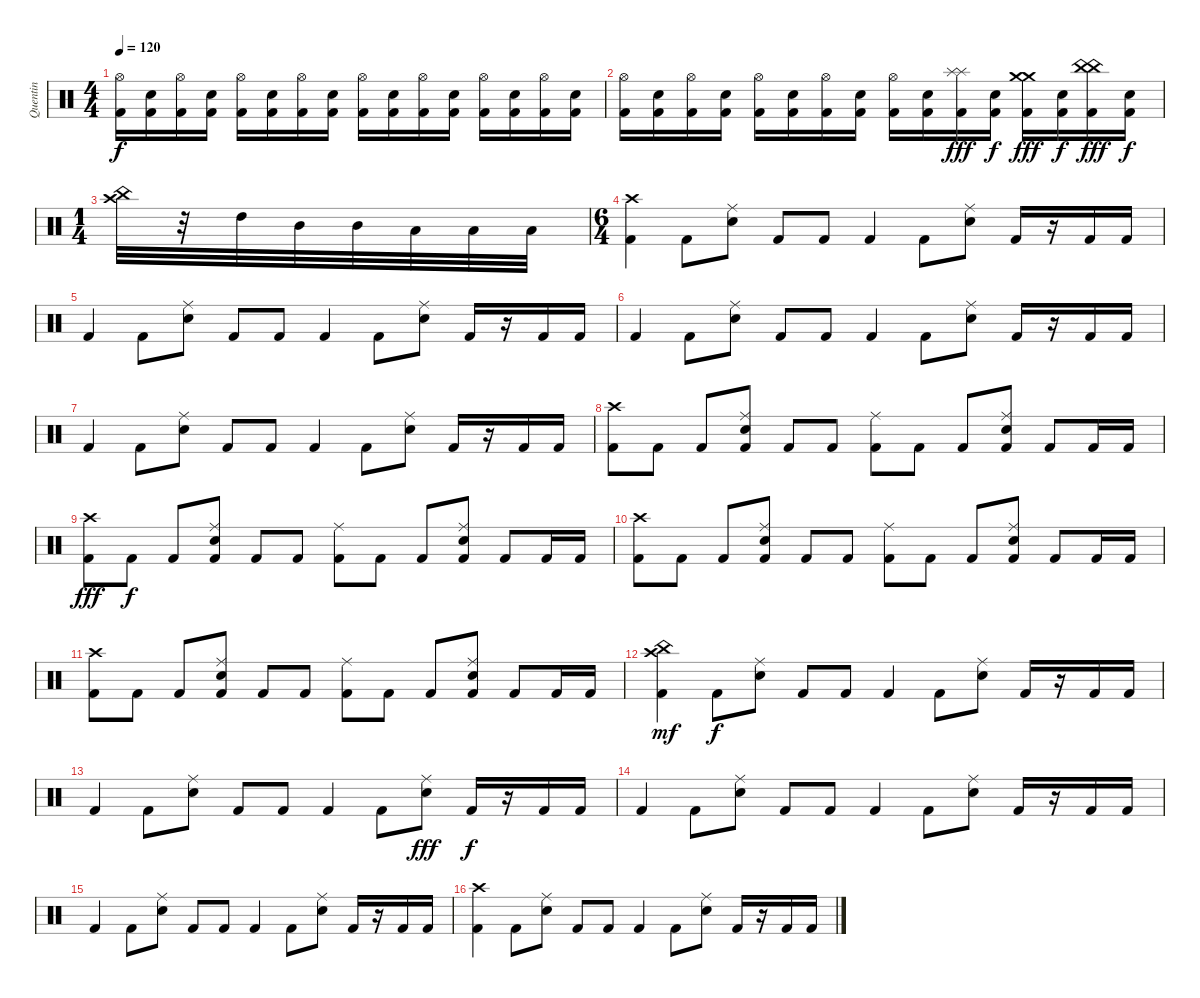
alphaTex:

\track ("Quentin" "Quentin") {instrument percussion}
\staff {score}
\articulation defaults
\ts (4 4)
\tempo 120
\clef neutral
\ks c
("Hi-Hat (open)" "Kick (hit) 2").16{dy f} ("Snare (hit) 2" "Kick (hit) 2").16 ("Hi-Hat (open)" "Kick (hit) 2").16 ("Snare (hit) 2" "Kick (hit) 2").16 ("Hi-Hat (open)" "Kick (hit) 2").16 ("Snare (hit) 2" "Kick (hit) 2").16 ("Hi-Hat (open)" "Kick (hit) 2").16 ("Snare (hit) 2" "Kick (hit) 2").16 ("Hi-Hat (open)" "Kick (hit) 2").16 ("Snare (hit) 2" "Kick (hit) 2").16 ("Hi-Hat (open)" "Kick (hit) 2").16 ("Snare (hit) 2" "Kick (hit) 2").16 ("Hi-Hat (open)" "Kick (hit) 2").16 ("Snare (hit) 2" "Kick (hit) 2").16 ("Hi-Hat (open)" "Kick (hit) 2").16 ("Snare (hit) 2" "Kick (hit) 2").16 |
("Hi-Hat (open)" "Kick (hit) 2").16 ("Snare (hit) 2" "Kick (hit) 2").16 ("Hi-Hat (open)" "Kick (hit) 2").16 ("Snare (hit) 2" "Kick (hit) 2").16 ("Hi-Hat (open)" "Kick (hit) 2").16 ("Snare (hit) 2" "Kick (hit) 2").16 ("Hi-Hat (open)" "Kick (hit) 2").16 ("Snare (hit) 2" "Kick (hit) 2").16 ("Hi-Hat (open)" "Kick (hit) 2").16 ("Snare (hit) 2" "Kick (hit) 2").16 ("Splash (hit)" "Splash (hit)" "Kick (hit) 2").16{dy fff} ("Snare (hit) 2" "Kick (hit) 2").16{dy f} ("Crash medium (hit)" "Crash medium (hit)" "Kick (hit) 2").16{dy fff} ("Snare (hit) 2" "Kick (hit) 2").16{dy f} ("China (hit)" "China (hit)" "Kick (hit) 2").16{dy fff} ("Snare (hit) 2" "Kick (hit) 2").16{dy f} |
\ts (1 4)
("China (hit)" "Crash high (hit)").32 r.32 "High Tom (hit)".32 "Mid Tom (hit)".32 "Mid Tom (hit)".32 "Low Tom (hit)".32 "Low Tom (hit)".32 "Low Tom (hit)".32 |
\ts (6 4)
("Crash high (hit)" "Kick (hit) 2").4 "Kick (hit) 2".8 ("Ride (middle)" "Electric Snare (hit)").8 "Kick (hit) 2".8 "Kick (hit) 2".8 "Kick (hit) 2".4 "Kick (hit) 2".8 ("Ride (middle)" "Electric Snare (hit)").8 "Kick (hit) 2".16 r.16 "Kick (hit) 2".16 "Kick (hit) 2".16 |
"Kick (hit) 2".4 "Kick (hit) 2".8 ("Ride (middle)" "Electric Snare (hit)").8 "Kick (hit) 2".8 "Kick (hit) 2".8 "Kick (hit) 2".4 "Kick (hit) 2".8 ("Ride (middle)" "Electric Snare (hit)").8 "Kick (hit) 2".16 r.16 "Kick (hit) 2".16 "Kick (hit) 2".16 |
"Kick (hit) 2".4 "Kick (hit) 2".8 ("Ride (middle)" "Electric Snare (hit)").8 "Kick (hit) 2".8 "Kick (hit) 2".8 "Kick (hit) 2".4 "Kick (hit) 2".8 ("Ride (middle)" "Electric Snare (hit)").8 "Kick (hit) 2".16 r.16 "Kick (hit) 2".16 "Kick (hit) 2".16 |
"Kick (hit) 2".4 "Kick (hit) 2".8 ("Ride (middle)" "Electric Snare (hit)").8 "Kick (hit) 2".8 "Kick (hit) 2".8 "Kick (hit) 2".4 "Kick (hit) 2".8 ("Ride (middle)" "Electric Snare (hit)").8 "Kick (hit) 2".16 r.16 "Kick (hit) 2".16 "Kick (hit) 2".16 |
("Crash high (hit)" "Kick (hit) 2").8 "Kick (hit) 2".8 "Kick (hit) 2".8 ("Ride (middle)" "Electric Snare (hit)" "Kick (hit) 2").8 "Kick (hit) 2".8 "Kick (hit) 2".8 ("Ride (middle)" "Kick (hit) 2").8 "Kick (hit) 2".8 "Kick (hit) 2".8 ("Ride (middle)" "Electric Snare (hit)" "Kick (hit) 2").8 "Kick (hit) 2".8 "Kick (hit) 2".16 "Kick (hit) 2".16 |
("Crash high (hit)" "Kick (hit) 2").8{dy fff} "Kick (hit) 2".8{dy f} "Kick (hit) 2".8 ("Ride (middle)" "Electric Snare (hit)" "Kick (hit) 2").8 "Kick (hit) 2".8 "Kick (hit) 2".8 ("Ride (middle)" "Kick (hit) 2").8 "Kick (hit) 2".8 "Kick (hit) 2".8 ("Ride (middle)" "Electric Snare (hit)" "Kick (hit) 2").8 "Kick (hit) 2".8 "Kick (hit) 2".16 "Kick (hit) 2".16 |
("Crash high (hit)" "Kick (hit) 2").8 "Kick (hit) 2".8 "Kick (hit) 2".8 ("Ride (middle)" "Electric Snare (hit)" "Kick (hit) 2").8 "Kick (hit) 2".8 "Kick (hit) 2".8 ("Ride (middle)" "Kick (hit) 2").8 "Kick (hit) 2".8 "Kick (hit) 2".8 ("Ride (middle)" "Electric Snare (hit)" "Kick (hit) 2").8 "Kick (hit) 2".8 "Kick (hit) 2".16 "Kick (hit) 2".16 |
("Crash high (hit)" "Kick (hit) 2").8 "Kick (hit) 2".8 "Kick (hit) 2".8 ("Ride (middle)" "Electric Snare (hit)" "Kick (hit) 2").8 "Kick (hit) 2".8 "Kick (hit) 2".8 ("Ride (middle)" "Kick (hit) 2").8 "Kick (hit) 2".8 "Kick (hit) 2".8 ("Ride (middle)" "Electric Snare (hit)" "Kick (hit) 2").8 "Kick (hit) 2".8 "Kick (hit) 2".16 "Kick (hit) 2".16 |
("Crash high (hit)" "China (hit)" "Kick (hit) 2").4{dy mf} "Kick (hit) 2".8{dy f} ("Ride (middle)" "Electric Snare (hit)").8 "Kick (hit) 2".8 "Kick (hit) 2".8 "Kick (hit) 2".4 "Kick (hit) 2".8 ("Ride (middle)" "Electric Snare (hit)").8 "Kick (hit) 2".16 r.16 "Kick (hit) 2".16 "Kick (hit) 2".16 |
"Kick (hit) 2".4 "Kick (hit) 2".8 ("Ride (middle)" "Electric Snare (hit)").8 "Kick (hit) 2".8 "Kick (hit) 2".8 "Kick (hit) 2".4 "Kick (hit) 2".8 ("Ride (middle)" "Electric Snare (hit)").8{dy fff} "Kick (hit) 2".16{dy f} r.16 "Kick (hit) 2".16 "Kick (hit) 2".16 |
"Kick (hit) 2".4 "Kick (hit) 2".8 ("Ride (middle)" "Electric Snare (hit)").8 "Kick (hit) 2".8 "Kick (hit) 2".8 "Kick (hit) 2".4 "Kick (hit) 2".8 ("Ride (middle)" "Electric Snare (hit)").8 "Kick (hit) 2".16 r.16 "Kick (hit) 2".16 "Kick (hit) 2".16 |
"Kick (hit) 2".4 "Kick (hit) 2".8 ("Ride (middle)" "Electric Snare (hit)").8 "Kick (hit) 2".8 "Kick (hit) 2".8 "Kick (hit) 2".4 "Kick (hit) 2".8 ("Ride (middle)" "Electric Snare (hit)").8 "Kick (hit) 2".16 r.16 "Kick (hit) 2".16 "Kick (hit) 2".16 |
("Crash high (hit)" "Kick (hit) 2").4 "Kick (hit) 2".8 ("Ride (middle)" "Electric Snare (hit)").8 "Kick (hit) 2".8 "Kick (hit) 2".8 "Kick (hit) 2".4 "Kick (hit) 2".8 ("Ride (middle)" "Electric Snare (hit)").8 "Kick (hit) 2".16 r.16 "Kick (hit) 2".16 "Kick (hit) 2".16
